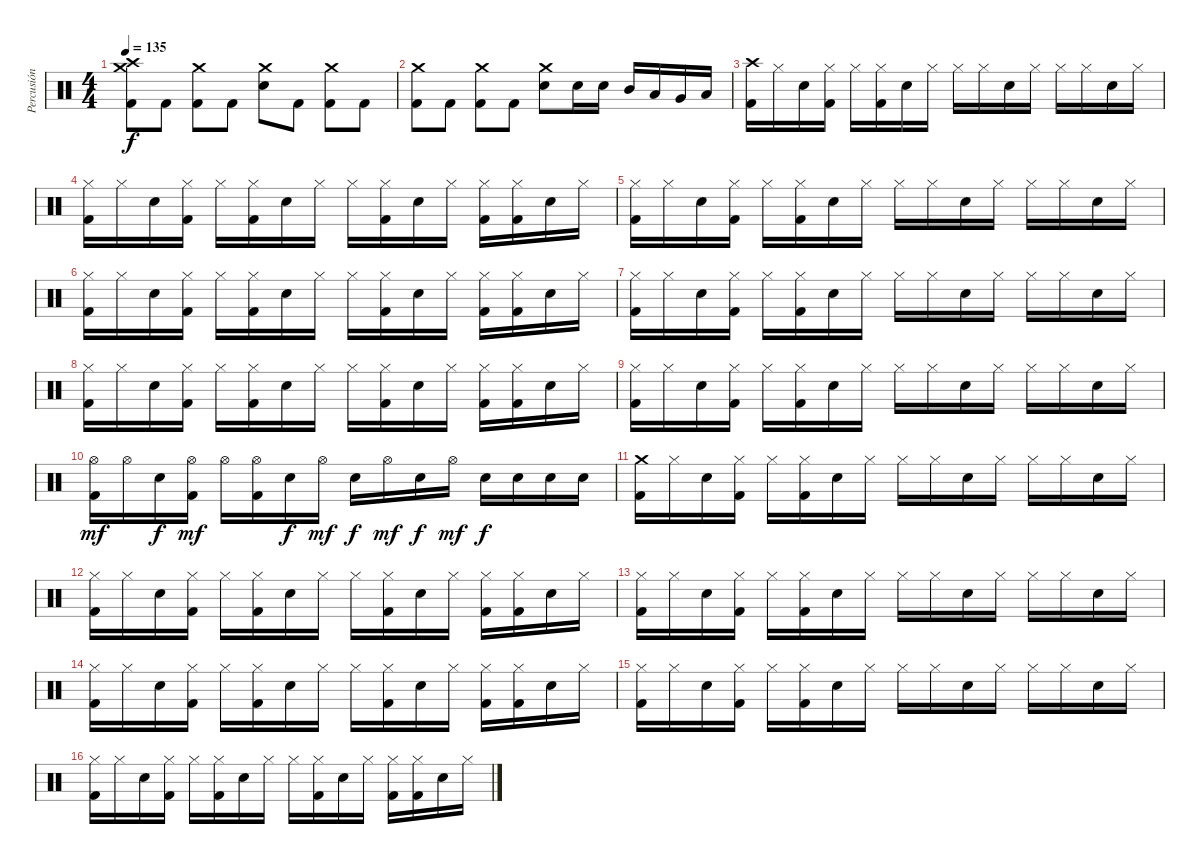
\track ("Percusión" "Percusión") {instrument percussion}
\staff {score}
\articulation defaults
\ts (4 4)
\tempo 135
\clef neutral
\ks c
("Crash high (hit)" "Crash medium (hit)" "Kick (hit) 2").8{dy f} "Kick (hit) 2".8 ("Crash medium (hit)" "Kick (hit) 2").8 "Kick (hit) 2".8 ("Crash medium (hit)" "Electric Snare (hit)").8 "Kick (hit) 2".8 ("Crash medium (hit)" "Kick (hit) 2").8 "Kick (hit) 2".8 |
("Crash medium (hit)" "Kick (hit) 2").8 "Kick (hit) 2".8 ("Crash medium (hit)" "Kick (hit) 2").8 "Kick (hit) 2".8 ("Crash medium (hit)" "Electric Snare (hit)").8 "Electric Snare (hit)".16 "Electric Snare (hit)".16 "Mid Tom (hit)".16 "Low Tom (hit)".16 "Very Low Tom (hit)".16 "Low Floor Tom (hit)".16 |
("Crash high (hit)" "Kick (hit) 2").16 "Hi-Hat (closed)".16 "Electric Snare (hit)".16 ("Hi-Hat (closed)" "Kick (hit) 2").16 "Hi-Hat (closed)".16 ("Hi-Hat (closed)" "Kick (hit) 2").16 "Electric Snare (hit)".16 "Hi-Hat (closed)".16 "Hi-Hat (closed)".16 "Hi-Hat (closed)".16 "Electric Snare (hit)".16 "Hi-Hat (closed)".16 "Hi-Hat (closed)".16 "Hi-Hat (closed)".16 "Electric Snare (hit)".16 "Hi-Hat (closed)".16 |
("Hi-Hat (closed)" "Kick (hit) 2").16 "Hi-Hat (closed)".16 "Electric Snare (hit)".16 ("Hi-Hat (closed)" "Kick (hit) 2").16 "Hi-Hat (closed)".16 ("Hi-Hat (closed)" "Kick (hit) 2").16 "Electric Snare (hit)".16 "Hi-Hat (closed)".16 "Hi-Hat (closed)".16 ("Hi-Hat (closed)" "Kick (hit) 2").16 "Electric Snare (hit)".16 "Hi-Hat (closed)".16 ("Hi-Hat (closed)" "Kick (hit) 2").16 ("Hi-Hat (closed)" "Kick (hit) 2").16 "Electric Snare (hit)".16 "Hi-Hat (closed)".16 |
("Hi-Hat (closed)" "Kick (hit) 2").16 "Hi-Hat (closed)".16 "Electric Snare (hit)".16 ("Hi-Hat (closed)" "Kick (hit) 2").16 "Hi-Hat (closed)".16 ("Hi-Hat (closed)" "Kick (hit) 2").16 "Electric Snare (hit)".16 "Hi-Hat (closed)".16 "Hi-Hat (closed)".16 "Hi-Hat (closed)".16 "Electric Snare (hit)".16 "Hi-Hat (closed)".16 "Hi-Hat (closed)".16 "Hi-Hat (closed)".16 "Electric Snare (hit)".16 "Hi-Hat (closed)".16 |
("Hi-Hat (closed)" "Kick (hit) 2").16 "Hi-Hat (closed)".16 "Electric Snare (hit)".16 ("Hi-Hat (closed)" "Kick (hit) 2").16 "Hi-Hat (closed)".16 ("Hi-Hat (closed)" "Kick (hit) 2").16 "Electric Snare (hit)".16 "Hi-Hat (closed)".16 "Hi-Hat (closed)".16 ("Hi-Hat (closed)" "Kick (hit) 2").16 "Electric Snare (hit)".16 "Hi-Hat (closed)".16 ("Hi-Hat (closed)" "Kick (hit) 2").16 ("Hi-Hat (closed)" "Kick (hit) 2").16 "Electric Snare (hit)".16 "Hi-Hat (closed)".16 |
("Hi-Hat (closed)" "Kick (hit) 2").16 "Hi-Hat (closed)".16 "Electric Snare (hit)".16 ("Hi-Hat (closed)" "Kick (hit) 2").16 "Hi-Hat (closed)".16 ("Hi-Hat (closed)" "Kick (hit) 2").16 "Electric Snare (hit)".16 "Hi-Hat (closed)".16 "Hi-Hat (closed)".16 "Hi-Hat (closed)".16 "Electric Snare (hit)".16 "Hi-Hat (closed)".16 "Hi-Hat (closed)".16 "Hi-Hat (closed)".16 "Electric Snare (hit)".16 "Hi-Hat (closed)".16 |
("Hi-Hat (closed)" "Kick (hit) 2").16 "Hi-Hat (closed)".16 "Electric Snare (hit)".16 ("Hi-Hat (closed)" "Kick (hit) 2").16 "Hi-Hat (closed)".16 ("Hi-Hat (closed)" "Kick (hit) 2").16 "Electric Snare (hit)".16 "Hi-Hat (closed)".16 "Hi-Hat (closed)".16 ("Hi-Hat (closed)" "Kick (hit) 2").16 "Electric Snare (hit)".16 "Hi-Hat (closed)".16 ("Hi-Hat (closed)" "Kick (hit) 2").16 ("Hi-Hat (closed)" "Kick (hit) 2").16 "Electric Snare (hit)".16 "Hi-Hat (closed)".16 |
("Hi-Hat (closed)" "Kick (hit) 2").16 "Hi-Hat (closed)".16 "Electric Snare (hit)".16 ("Hi-Hat (closed)" "Kick (hit) 2").16 "Hi-Hat (closed)".16 ("Hi-Hat (closed)" "Kick (hit) 2").16 "Electric Snare (hit)".16 "Hi-Hat (closed)".16 "Hi-Hat (closed)".16 "Hi-Hat (closed)".16 "Electric Snare (hit)".16 "Hi-Hat (closed)".16 "Hi-Hat (closed)".16 "Hi-Hat (closed)".16 "Electric Snare (hit)".16 "Hi-Hat (closed)".16 |
("Hi-Hat (open)" "Kick (hit) 2").16{dy mf} "Hi-Hat (open)".16 "Electric Snare (hit)".16{dy f} ("Hi-Hat (open)" "Kick (hit) 2").16{dy mf} "Hi-Hat (open)".16 ("Hi-Hat (open)" "Kick (hit) 2").16 "Electric Snare (hit)".16{dy f} "Hi-Hat (open)".16{dy mf} "Electric Snare (hit)".16{dy f} "Hi-Hat (open)".16{dy mf} "Electric Snare (hit)".16{dy f} "Hi-Hat (open)".16{dy mf} "Electric Snare (hit)".16{dy f} "Electric Snare (hit)".16 "Electric Snare (hit)".16 "Electric Snare (hit)".16 |
("Crash medium (hit)" "Kick (hit) 2").16 "Hi-Hat (closed)".16 "Electric Snare (hit)".16 ("Hi-Hat (closed)" "Kick (hit) 2").16 "Hi-Hat (closed)".16 ("Hi-Hat (closed)" "Kick (hit) 2").16 "Electric Snare (hit)".16 "Hi-Hat (closed)".16 "Hi-Hat (closed)".16 "Hi-Hat (closed)".16 "Electric Snare (hit)".16 "Hi-Hat (closed)".16 "Hi-Hat (closed)".16 "Hi-Hat (closed)".16 "Electric Snare (hit)".16 "Hi-Hat (closed)".16 |
("Hi-Hat (closed)" "Kick (hit) 2").16 "Hi-Hat (closed)".16 "Electric Snare (hit)".16 ("Hi-Hat (closed)" "Kick (hit) 2").16 "Hi-Hat (closed)".16 ("Hi-Hat (closed)" "Kick (hit) 2").16 "Electric Snare (hit)".16 "Hi-Hat (closed)".16 "Hi-Hat (closed)".16 ("Hi-Hat (closed)" "Kick (hit) 2").16 "Electric Snare (hit)".16 "Hi-Hat (closed)".16 ("Hi-Hat (closed)" "Kick (hit) 2").16 ("Hi-Hat (closed)" "Kick (hit) 2").16 "Electric Snare (hit)".16 "Hi-Hat (closed)".16 |
("Hi-Hat (closed)" "Kick (hit) 2").16 "Hi-Hat (closed)".16 "Electric Snare (hit)".16 ("Hi-Hat (closed)" "Kick (hit) 2").16 "Hi-Hat (closed)".16 ("Hi-Hat (closed)" "Kick (hit) 2").16 "Electric Snare (hit)".16 "Hi-Hat (closed)".16 "Hi-Hat (closed)".16 "Hi-Hat (closed)".16 "Electric Snare (hit)".16 "Hi-Hat (closed)".16 "Hi-Hat (closed)".16 "Hi-Hat (closed)".16 "Electric Snare (hit)".16 "Hi-Hat (closed)".16 |
("Hi-Hat (closed)" "Kick (hit) 2").16 "Hi-Hat (closed)".16 "Electric Snare (hit)".16 ("Hi-Hat (closed)" "Kick (hit) 2").16 "Hi-Hat (closed)".16 ("Hi-Hat (closed)" "Kick (hit) 2").16 "Electric Snare (hit)".16 "Hi-Hat (closed)".16 "Hi-Hat (closed)".16 ("Hi-Hat (closed)" "Kick (hit) 2").16 "Electric Snare (hit)".16 "Hi-Hat (closed)".16 ("Hi-Hat (closed)" "Kick (hit) 2").16 ("Hi-Hat (closed)" "Kick (hit) 2").16 "Electric Snare (hit)".16 "Hi-Hat (closed)".16 |
("Hi-Hat (closed)" "Kick (hit) 2").16 "Hi-Hat (closed)".16 "Electric Snare (hit)".16 ("Hi-Hat (closed)" "Kick (hit) 2").16 "Hi-Hat (closed)".16 ("Hi-Hat (closed)" "Kick (hit) 2").16 "Electric Snare (hit)".16 "Hi-Hat (closed)".16 "Hi-Hat (closed)".16 "Hi-Hat (closed)".16 "Electric Snare (hit)".16 "Hi-Hat (closed)".16 "Hi-Hat (closed)".16 "Hi-Hat (closed)".16 "Electric Snare (hit)".16 "Hi-Hat (closed)".16 |
("Hi-Hat (closed)" "Kick (hit) 2").16 "Hi-Hat (closed)".16 "Electric Snare (hit)".16 ("Hi-Hat (closed)" "Kick (hit) 2").16 "Hi-Hat (closed)".16 ("Hi-Hat (closed)" "Kick (hit) 2").16 "Electric Snare (hit)".16 "Hi-Hat (closed)".16 "Hi-Hat (closed)".16 ("Hi-Hat (closed)" "Kick (hit) 2").16 "Electric Snare (hit)".16 "Hi-Hat (closed)".16 ("Hi-Hat (closed)" "Kick (hit) 2").16 ("Hi-Hat (closed)" "Kick (hit) 2").16 "Electric Snare (hit)".16 "Hi-Hat (closed)".16
